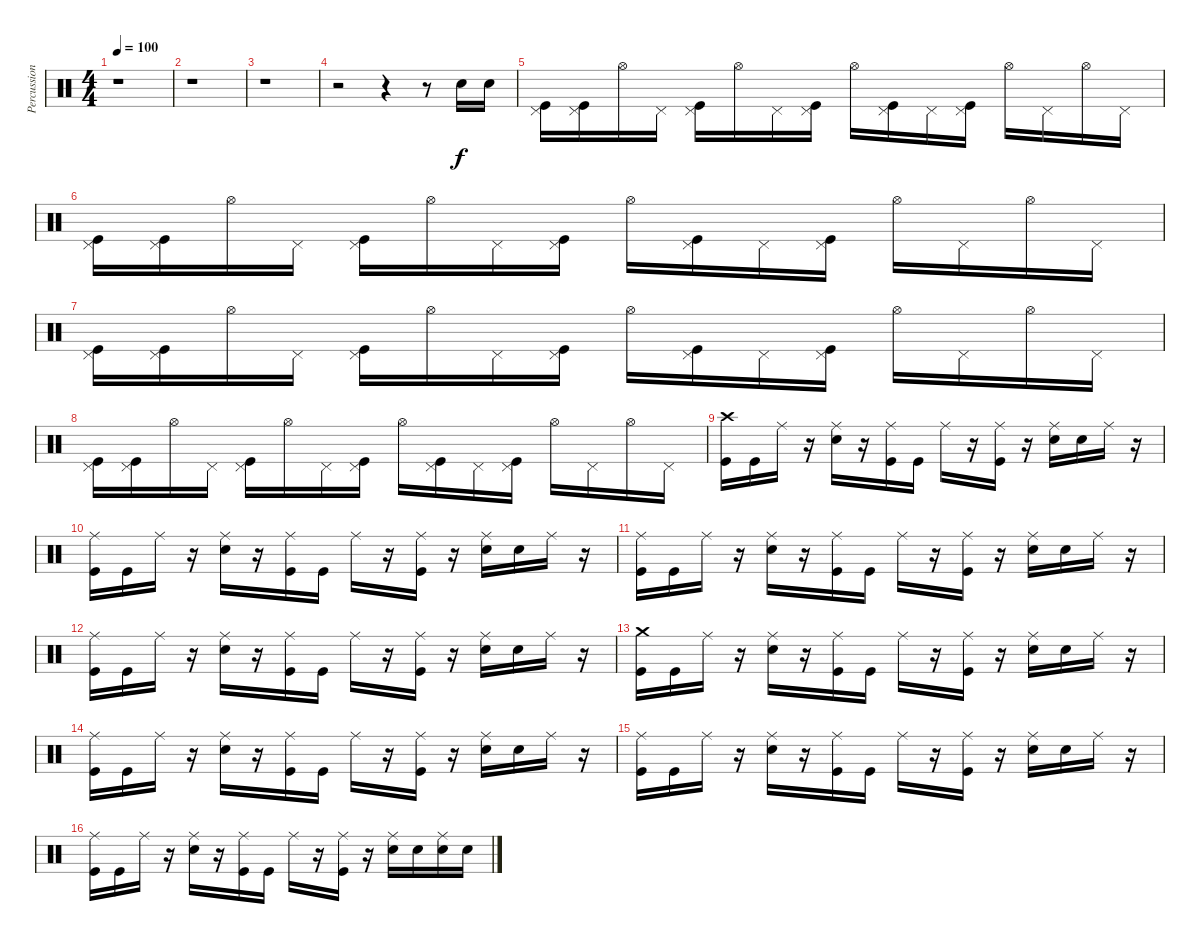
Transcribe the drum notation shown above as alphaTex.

\track ("Percussions" "Percussion") {instrument percussion}
\staff {score}
\articulation defaults
\ts (4 4)
\tempo 100
\clef neutral
\ks c
r.1{dy f} |
r.1 |
r.1 |
r.2 r.4 r.8 "Electric Snare (hit)".16 "Electric Snare (hit)".16 |
("Pedal Hi-Hat (hit)" "Kick (hit)").16 ("Pedal Hi-Hat (hit)" "Kick (hit)").16 "Hi-Hat (open)".16 "Pedal Hi-Hat (hit)".16 ("Pedal Hi-Hat (hit)" "Kick (hit)").16 "Hi-Hat (open)".16 "Pedal Hi-Hat (hit)".16 ("Pedal Hi-Hat (hit)" "Kick (hit)").16 "Hi-Hat (open)".16 ("Pedal Hi-Hat (hit)" "Kick (hit)").16 "Pedal Hi-Hat (hit)".16 ("Pedal Hi-Hat (hit)" "Kick (hit)").16 "Hi-Hat (open)".16 "Pedal Hi-Hat (hit)".16 "Hi-Hat (open)".16 "Pedal Hi-Hat (hit)".16 |
("Pedal Hi-Hat (hit)" "Kick (hit)").16 ("Pedal Hi-Hat (hit)" "Kick (hit)").16 "Hi-Hat (open)".16 "Pedal Hi-Hat (hit)".16 ("Pedal Hi-Hat (hit)" "Kick (hit)").16 "Hi-Hat (open)".16 "Pedal Hi-Hat (hit)".16 ("Pedal Hi-Hat (hit)" "Kick (hit)").16 "Hi-Hat (open)".16 ("Pedal Hi-Hat (hit)" "Kick (hit)").16 "Pedal Hi-Hat (hit)".16 ("Pedal Hi-Hat (hit)" "Kick (hit)").16 "Hi-Hat (open)".16 "Pedal Hi-Hat (hit)".16 "Hi-Hat (open)".16 "Pedal Hi-Hat (hit)".16 |
("Pedal Hi-Hat (hit)" "Kick (hit)").16 ("Pedal Hi-Hat (hit)" "Kick (hit)").16 "Hi-Hat (open)".16 "Pedal Hi-Hat (hit)".16 ("Pedal Hi-Hat (hit)" "Kick (hit)").16 "Hi-Hat (open)".16 "Pedal Hi-Hat (hit)".16 ("Pedal Hi-Hat (hit)" "Kick (hit)").16 "Hi-Hat (open)".16 ("Pedal Hi-Hat (hit)" "Kick (hit)").16 "Pedal Hi-Hat (hit)".16 ("Pedal Hi-Hat (hit)" "Kick (hit)").16 "Hi-Hat (open)".16 "Pedal Hi-Hat (hit)".16 "Hi-Hat (open)".16 "Pedal Hi-Hat (hit)".16 |
("Pedal Hi-Hat (hit)" "Kick (hit)").16 ("Pedal Hi-Hat (hit)" "Kick (hit)").16 "Hi-Hat (open)".16 "Pedal Hi-Hat (hit)".16 ("Pedal Hi-Hat (hit)" "Kick (hit)").16 "Hi-Hat (open)".16 "Pedal Hi-Hat (hit)".16 ("Pedal Hi-Hat (hit)" "Kick (hit)").16 "Hi-Hat (open)".16 ("Pedal Hi-Hat (hit)" "Kick (hit)").16 "Pedal Hi-Hat (hit)".16 ("Pedal Hi-Hat (hit)" "Kick (hit)").16 "Hi-Hat (open)".16 "Pedal Hi-Hat (hit)".16 "Hi-Hat (open)".16 "Pedal Hi-Hat (hit)".16 |
("Crash high (hit)" "Kick (hit)").16 "Kick (hit)".16 "Ride (middle)".16 r.16 ("Ride (middle)" "Electric Snare (hit)").16 r.16 ("Ride (middle)" "Kick (hit)").16 "Kick (hit)".16 "Ride (middle)".16 r.16 ("Ride (middle)" "Kick (hit)").16 r.16 ("Ride (middle)" "Electric Snare (hit)").16 "Electric Snare (hit)".16 "Ride (middle)".16 r.16 |
("Ride (middle)" "Kick (hit)").16 "Kick (hit)".16 "Ride (middle)".16 r.16 ("Ride (middle)" "Electric Snare (hit)").16 r.16 ("Ride (middle)" "Kick (hit)").16 "Kick (hit)".16 "Ride (middle)".16 r.16 ("Ride (middle)" "Kick (hit)").16 r.16 ("Ride (middle)" "Electric Snare (hit)").16 "Electric Snare (hit)".16 "Ride (middle)".16 r.16 |
("Ride (middle)" "Kick (hit)").16 "Kick (hit)".16 "Ride (middle)".16 r.16 ("Ride (middle)" "Electric Snare (hit)").16 r.16 ("Ride (middle)" "Kick (hit)").16 "Kick (hit)".16 "Ride (middle)".16 r.16 ("Ride (middle)" "Kick (hit)").16 r.16 ("Ride (middle)" "Electric Snare (hit)").16 "Electric Snare (hit)".16 "Ride (middle)".16 r.16 |
("Ride (middle)" "Kick (hit)").16 "Kick (hit)".16 "Ride (middle)".16 r.16 ("Ride (middle)" "Electric Snare (hit)").16 r.16 ("Ride (middle)" "Kick (hit)").16 "Kick (hit)".16 "Ride (middle)".16 r.16 ("Ride (middle)" "Kick (hit)").16 r.16 ("Ride (middle)" "Electric Snare (hit)").16 "Electric Snare (hit)".16 "Ride (middle)".16 r.16 |
("Crash medium (hit)" "Kick (hit)").16 "Kick (hit)".16 "Ride (middle)".16 r.16 ("Ride (middle)" "Electric Snare (hit)").16 r.16 ("Ride (middle)" "Kick (hit)").16 "Kick (hit)".16 "Ride (middle)".16 r.16 ("Ride (middle)" "Kick (hit)").16 r.16 ("Ride (middle)" "Electric Snare (hit)").16 "Electric Snare (hit)".16 "Ride (middle)".16 r.16 |
("Ride (middle)" "Kick (hit)").16 "Kick (hit)".16 "Ride (middle)".16 r.16 ("Ride (middle)" "Electric Snare (hit)").16 r.16 ("Ride (middle)" "Kick (hit)").16 "Kick (hit)".16 "Ride (middle)".16 r.16 ("Ride (middle)" "Kick (hit)").16 r.16 ("Ride (middle)" "Electric Snare (hit)").16 "Electric Snare (hit)".16 "Ride (middle)".16 r.16 |
("Ride (middle)" "Kick (hit)").16 "Kick (hit)".16 "Ride (middle)".16 r.16 ("Ride (middle)" "Electric Snare (hit)").16 r.16 ("Ride (middle)" "Kick (hit)").16 "Kick (hit)".16 "Ride (middle)".16 r.16 ("Ride (middle)" "Kick (hit)").16 r.16 ("Ride (middle)" "Electric Snare (hit)").16 "Electric Snare (hit)".16 "Ride (middle)".16 r.16 |
("Ride (middle)" "Kick (hit)").16 "Kick (hit)".16 "Ride (middle)".16 r.16 ("Ride (middle)" "Electric Snare (hit)").16 r.16 ("Ride (middle)" "Kick (hit)").16 "Kick (hit)".16 "Ride (middle)".16 r.16 ("Ride (middle)" "Kick (hit)").16 r.16 ("Ride (middle)" "Electric Snare (hit)").16 "Electric Snare (hit)".16 ("Ride (middle)" "Electric Snare (hit)").16 "Electric Snare (hit)".16
